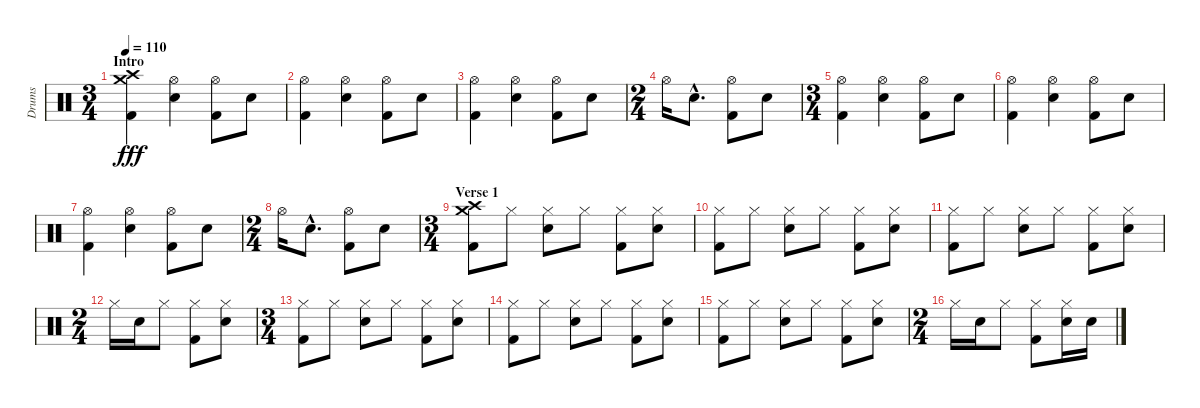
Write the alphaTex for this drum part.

\track ("Drums" "Drums") {instrument percussion}
\staff {score}
\articulation defaults
\ts (3 4)
\section ("" "Intro")
\tempo 110
\clef neutral
\ks c
("Crash high (hit)" "Crash medium (hit)" "Kick (hit) 2").4{dy fff} ("Hi-Hat (open)" "Electric Snare (hit)").4 ("Hi-Hat (open)" "Kick (hit) 2").8 "Electric Snare (hit)".8 |
("Hi-Hat (open)" "Kick (hit) 2").4 ("Hi-Hat (open)" "Electric Snare (hit)").4 ("Hi-Hat (open)" "Kick (hit) 2").8 "Electric Snare (hit)".8 |
("Hi-Hat (open)" "Kick (hit) 2").4 ("Hi-Hat (open)" "Electric Snare (hit)").4 ("Hi-Hat (open)" "Kick (hit) 2").8 "Electric Snare (hit)".8 |
\ts (2 4)
"Hi-Hat (open)".16 "Electric Snare (hit)"{hac}.8{d} ("Hi-Hat (open)" "Kick (hit) 2").8 "Electric Snare (hit)".8 |
\ts (3 4)
("Hi-Hat (open)" "Kick (hit) 2").4 ("Hi-Hat (open)" "Electric Snare (hit)").4 ("Hi-Hat (open)" "Kick (hit) 2").8 "Electric Snare (hit)".8 |
("Hi-Hat (open)" "Kick (hit) 2").4 ("Hi-Hat (open)" "Electric Snare (hit)").4 ("Hi-Hat (open)" "Kick (hit) 2").8 "Electric Snare (hit)".8 |
("Hi-Hat (open)" "Kick (hit) 2").4 ("Hi-Hat (open)" "Electric Snare (hit)").4 ("Hi-Hat (open)" "Kick (hit) 2").8 "Electric Snare (hit)".8 |
\ts (2 4)
"Hi-Hat (open)".16 "Electric Snare (hit)"{hac}.8{d} ("Hi-Hat (open)" "Kick (hit) 2").8 "Electric Snare (hit)".8 |
\ts (3 4)
\section ("" "Verse 1")
("Crash high (hit)" "Crash medium (hit)" "Kick (hit) 2").8 "Hi-Hat (closed)".8 ("Hi-Hat (closed)" "Electric Snare (hit)").8 "Hi-Hat (closed)".8 ("Hi-Hat (closed)" "Kick (hit) 2").8 ("Hi-Hat (closed)" "Electric Snare (hit)").8 |
("Hi-Hat (closed)" "Kick (hit) 2").8 "Hi-Hat (closed)".8 ("Hi-Hat (closed)" "Electric Snare (hit)").8 "Hi-Hat (closed)".8 ("Hi-Hat (closed)" "Kick (hit) 2").8 ("Hi-Hat (closed)" "Electric Snare (hit)").8 |
("Hi-Hat (closed)" "Kick (hit) 2").8 "Hi-Hat (closed)".8 ("Hi-Hat (closed)" "Electric Snare (hit)").8 "Hi-Hat (closed)".8 ("Hi-Hat (closed)" "Kick (hit) 2").8 ("Hi-Hat (closed)" "Electric Snare (hit)").8 |
\ts (2 4)
"Hi-Hat (closed)".16 "Electric Snare (hit)".16 "Hi-Hat (closed)".8 ("Hi-Hat (closed)" "Kick (hit) 2").8 ("Hi-Hat (closed)" "Electric Snare (hit)").8 |
\ts (3 4)
("Hi-Hat (closed)" "Kick (hit) 2").8 "Hi-Hat (closed)".8 ("Hi-Hat (closed)" "Electric Snare (hit)").8 "Hi-Hat (closed)".8 ("Hi-Hat (closed)" "Kick (hit) 2").8 ("Hi-Hat (closed)" "Electric Snare (hit)").8 |
("Hi-Hat (closed)" "Kick (hit) 2").8 "Hi-Hat (closed)".8 ("Hi-Hat (closed)" "Electric Snare (hit)").8 "Hi-Hat (closed)".8 ("Hi-Hat (closed)" "Kick (hit) 2").8 ("Hi-Hat (closed)" "Electric Snare (hit)").8 |
("Hi-Hat (closed)" "Kick (hit) 2").8 "Hi-Hat (closed)".8 ("Hi-Hat (closed)" "Electric Snare (hit)").8 "Hi-Hat (closed)".8 ("Hi-Hat (closed)" "Kick (hit) 2").8 ("Hi-Hat (closed)" "Electric Snare (hit)").8 |
\ts (2 4)
"Hi-Hat (closed)".16 "Electric Snare (hit)".16 "Hi-Hat (closed)".8 ("Hi-Hat (closed)" "Kick (hit) 2").8 ("Hi-Hat (closed)" "Electric Snare (hit)").16 "Electric Snare (hit)".16
